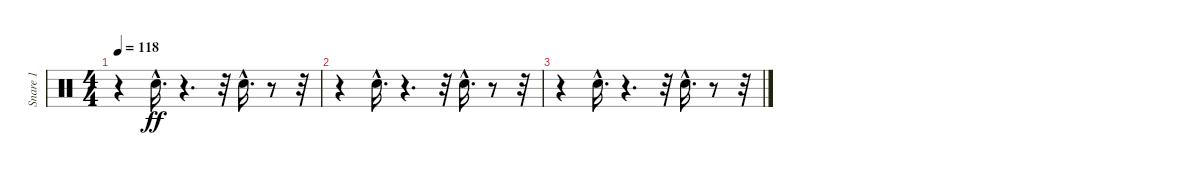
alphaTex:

\track ("Snare 1             " "Snare 1   ") {instrument percussion}
\staff {score}
\articulation defaults
\ts (4 4)
\tempo 118
\clef neutral
\ks c
r.4{dy ff} "Snare (hit) 2"{hac}.16{d} r.4{d} r.32 "Snare (hit) 2"{hac}.16{d} r.8 r.32 |
r.4 "Snare (hit) 2"{hac}.16{d} r.4{d} r.32 "Snare (hit) 2"{hac}.16{d} r.8 r.32 |
r.4 "Snare (hit) 2"{hac}.16{d} r.4{d} r.32 "Snare (hit) 2"{hac}.16{d} r.8 r.32
